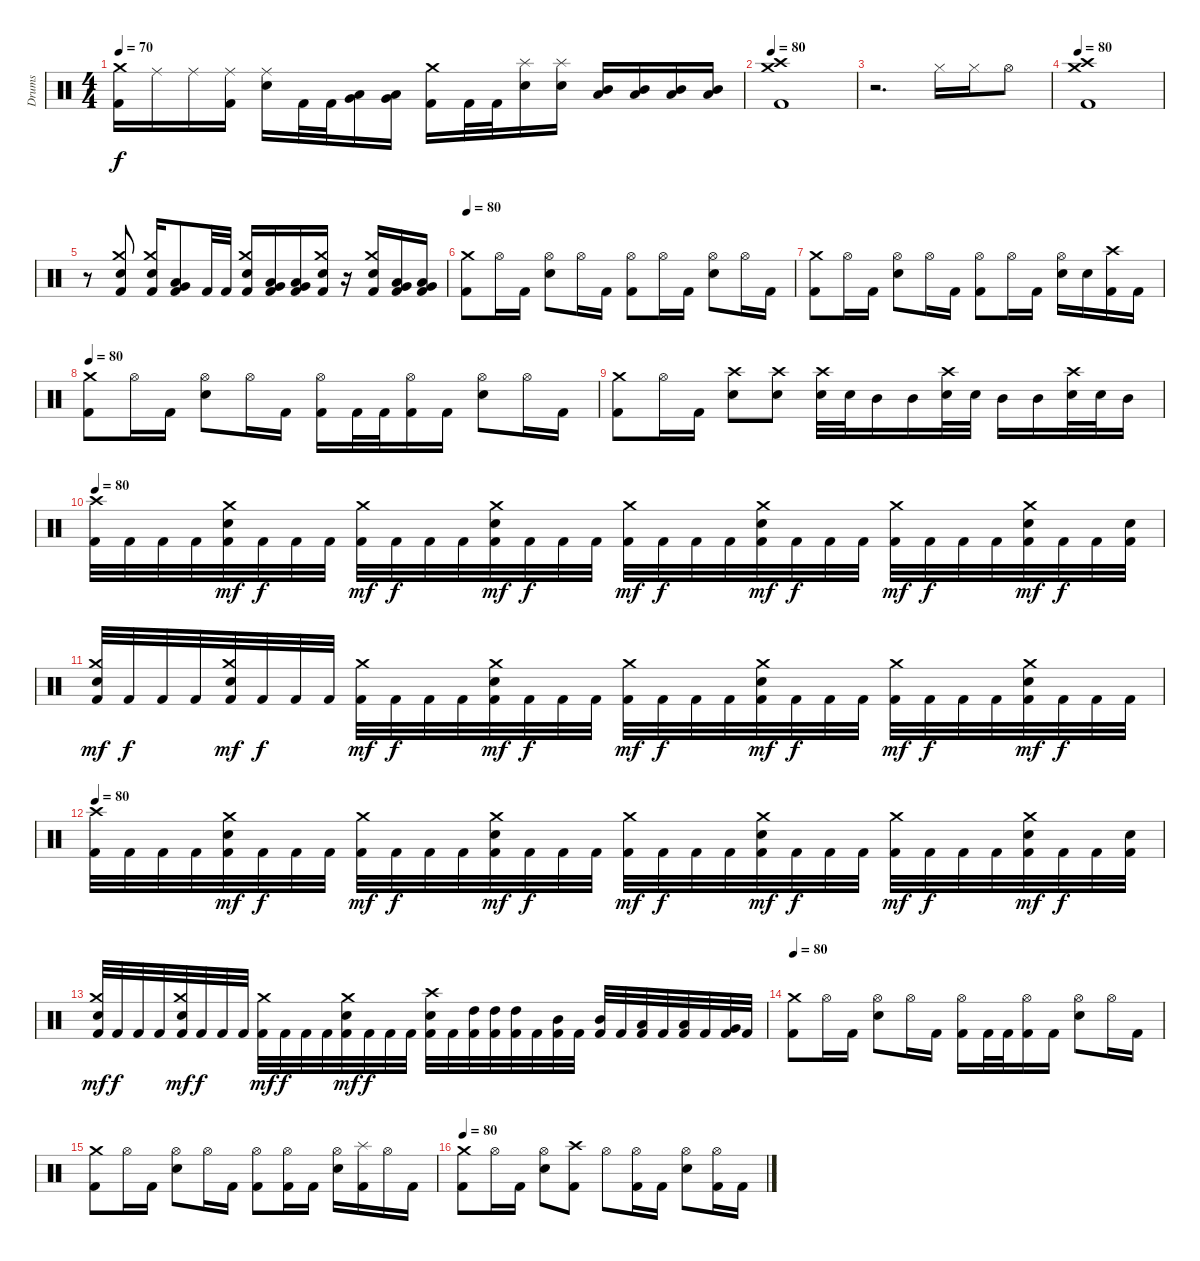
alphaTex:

\track ("Drums" "Drums") {instrument percussion}
\staff {score}
\articulation defaults
\ts (4 4)
\tempo 70
\clef neutral
\ks c
("Kick (hit) 2" "Crash medium (hit)").16{dy f} "Ride (middle)".16 "Ride (middle)".16 ("Kick (hit) 2" "Ride (middle)").16 ("Electric Snare (hit)" "Ride (middle)").16 "Kick (hit) 2".32 "Kick (hit) 2".32 ("Low Tom (hit)" "Very Low Tom (hit)").16 ("Low Tom (hit)" "Very Low Tom (hit)").16 ("Kick (hit) 2" "Crash medium (hit)").16 "Kick (hit) 2".32 "Kick (hit) 2".32 ("Electric Snare (hit)" "Splash (hit)").16 ("Electric Snare (hit)" "Splash (hit)").16 ("Mid Tom (hit)" "Low Tom (hit)").16 ("Mid Tom (hit)" "Low Tom (hit)").16 ("Mid Tom (hit)" "Low Tom (hit)").16 ("Mid Tom (hit)" "Low Tom (hit)").16 |
\tempo 80
("Kick (hit) 2" "Crash high (hit)" "Crash medium (hit)").1 |
r.2{d} "Hi-Hat (closed)".16 "Hi-Hat (closed)".16 "Hi-Hat (open)".8 |
\tempo 80
("Kick (hit) 2" "Crash high (hit)" "Crash medium (hit)").1 |
r.8 ("Kick (hit) 2" "Electric Snare (hit)" "Crash medium (hit)").8 ("Kick (hit) 2" "Electric Snare (hit)" "Crash medium (hit)").16 ("Kick (hit) 2" "Low Tom (hit)" "Very Low Tom (hit)").8 "Kick (hit) 2".32 "Kick (hit) 2".32 ("Kick (hit) 2" "Electric Snare (hit)" "Crash medium (hit)").16 ("Kick (hit) 2" "Low Tom (hit)" "Very Low Tom (hit)").16 ("Kick (hit) 2" "Low Tom (hit)" "Very Low Tom (hit)").16 ("Kick (hit) 2" "Electric Snare (hit)" "Crash medium (hit)").16 r.16 ("Kick (hit) 2" "Electric Snare (hit)" "Crash medium (hit)").16 ("Kick (hit) 2" "Low Tom (hit)" "Very Low Tom (hit)").16 ("Kick (hit) 2" "Low Tom (hit)" "Very Low Tom (hit)").16 |
\tempo 80
("Kick (hit) 2" "Crash medium (hit)").8 "Hi-Hat (open)".16 "Kick (hit) 2".16 ("Electric Snare (hit)" "Hi-Hat (open)").8 "Hi-Hat (open)".16 "Kick (hit) 2".16 ("Kick (hit) 2" "Hi-Hat (open)").8 "Hi-Hat (open)".16 "Kick (hit) 2".16 ("Electric Snare (hit)" "Hi-Hat (open)").8 "Hi-Hat (open)".16 "Kick (hit) 2".16 |
("Kick (hit) 2" "Crash medium (hit)").8 "Hi-Hat (open)".16 "Kick (hit) 2".16 ("Electric Snare (hit)" "Hi-Hat (open)").8 "Hi-Hat (open)".16 "Kick (hit) 2".16 ("Kick (hit) 2" "Hi-Hat (open)").8 "Hi-Hat (open)".16 "Kick (hit) 2".16 ("Electric Snare (hit)" "Hi-Hat (open)").16 "Electric Snare (hit)".16 ("Kick (hit) 2" "Crash high (hit)").16 "Kick (hit) 2".16 |
\tempo 80
("Kick (hit) 2" "Crash medium (hit)").8 "Hi-Hat (open)".16 "Kick (hit) 2".16 ("Electric Snare (hit)" "Hi-Hat (open)").8 "Hi-Hat (open)".16 "Kick (hit) 2".16 ("Kick (hit) 2" "Hi-Hat (open)").16 "Kick (hit) 2".32 "Kick (hit) 2".32 ("Kick (hit) 2" "Hi-Hat (open)").16 "Kick (hit) 2".16 ("Electric Snare (hit)" "Hi-Hat (open)").8 "Hi-Hat (open)".16 "Kick (hit) 2".16 |
("Kick (hit) 2" "Crash medium (hit)").8 "Hi-Hat (open)".16 "Kick (hit) 2".16 ("Electric Snare (hit)" "Crash high (hit)").8 ("Electric Snare (hit)" "Crash high (hit)").8 ("Electric Snare (hit)" "Crash high (hit)").32 "Electric Snare (hit)".32 "Mid Tom (hit)".16 "Mid Tom (hit)".16 ("Electric Snare (hit)" "Crash high (hit)").32 "Electric Snare (hit)".32 "Mid Tom (hit)".16 "Mid Tom (hit)".16 ("Electric Snare (hit)" "Crash high (hit)").32 "Electric Snare (hit)".32 "Mid Tom (hit)".16 |
\tempo 80
("Kick (hit) 2" "Crash high (hit)").32 "Kick (hit) 2".32 "Kick (hit) 2".32 "Kick (hit) 2".32 ("Kick (hit) 2" "Electric Snare (hit)" "Crash medium (hit)").32{dy mf} "Kick (hit) 2".32{dy f} "Kick (hit) 2".32 "Kick (hit) 2".32 ("Kick (hit) 2" "Crash medium (hit)").32{dy mf} "Kick (hit) 2".32{dy f} "Kick (hit) 2".32 "Kick (hit) 2".32 ("Kick (hit) 2" "Electric Snare (hit)" "Crash medium (hit)").32{dy mf} "Kick (hit) 2".32{dy f} "Kick (hit) 2".32 "Kick (hit) 2".32 ("Kick (hit) 2" "Crash medium (hit)").32{dy mf} "Kick (hit) 2".32{dy f} "Kick (hit) 2".32 "Kick (hit) 2".32 ("Kick (hit) 2" "Electric Snare (hit)" "Crash medium (hit)").32{dy mf} "Kick (hit) 2".32{dy f} "Kick (hit) 2".32 "Kick (hit) 2".32 ("Kick (hit) 2" "Crash medium (hit)").32{dy mf} "Kick (hit) 2".32{dy f} "Kick (hit) 2".32 "Kick (hit) 2".32 ("Kick (hit) 2" "Electric Snare (hit)" "Crash medium (hit)").32{dy mf} "Kick (hit) 2".32{dy f} "Kick (hit) 2".32 ("Kick (hit) 2" "Electric Snare (hit)").32 |
("Kick (hit) 2" "Electric Snare (hit)" "Crash medium (hit)").32{dy mf} "Kick (hit) 2".32{dy f} "Kick (hit) 2".32 "Kick (hit) 2".32 ("Kick (hit) 2" "Electric Snare (hit)" "Crash medium (hit)").32{dy mf} "Kick (hit) 2".32{dy f} "Kick (hit) 2".32 "Kick (hit) 2".32 ("Kick (hit) 2" "Crash medium (hit)").32{dy mf} "Kick (hit) 2".32{dy f} "Kick (hit) 2".32 "Kick (hit) 2".32 ("Kick (hit) 2" "Electric Snare (hit)" "Crash medium (hit)").32{dy mf} "Kick (hit) 2".32{dy f} "Kick (hit) 2".32 "Kick (hit) 2".32 ("Kick (hit) 2" "Crash medium (hit)").32{dy mf} "Kick (hit) 2".32{dy f} "Kick (hit) 2".32 "Kick (hit) 2".32 ("Kick (hit) 2" "Electric Snare (hit)" "Crash medium (hit)").32{dy mf} "Kick (hit) 2".32{dy f} "Kick (hit) 2".32 "Kick (hit) 2".32 ("Kick (hit) 2" "Crash medium (hit)").32{dy mf} "Kick (hit) 2".32{dy f} "Kick (hit) 2".32 "Kick (hit) 2".32 ("Kick (hit) 2" "Electric Snare (hit)" "Crash medium (hit)").32{dy mf} "Kick (hit) 2".32{dy f} "Kick (hit) 2".32 "Kick (hit) 2".32 |
\tempo 80
("Kick (hit) 2" "Crash high (hit)").32 "Kick (hit) 2".32 "Kick (hit) 2".32 "Kick (hit) 2".32 ("Kick (hit) 2" "Electric Snare (hit)" "Crash medium (hit)").32{dy mf} "Kick (hit) 2".32{dy f} "Kick (hit) 2".32 "Kick (hit) 2".32 ("Kick (hit) 2" "Crash medium (hit)").32{dy mf} "Kick (hit) 2".32{dy f} "Kick (hit) 2".32 "Kick (hit) 2".32 ("Kick (hit) 2" "Electric Snare (hit)" "Crash medium (hit)").32{dy mf} "Kick (hit) 2".32{dy f} "Kick (hit) 2".32 "Kick (hit) 2".32 ("Kick (hit) 2" "Crash medium (hit)").32{dy mf} "Kick (hit) 2".32{dy f} "Kick (hit) 2".32 "Kick (hit) 2".32 ("Kick (hit) 2" "Electric Snare (hit)" "Crash medium (hit)").32{dy mf} "Kick (hit) 2".32{dy f} "Kick (hit) 2".32 "Kick (hit) 2".32 ("Kick (hit) 2" "Crash medium (hit)").32{dy mf} "Kick (hit) 2".32{dy f} "Kick (hit) 2".32 "Kick (hit) 2".32 ("Kick (hit) 2" "Electric Snare (hit)" "Crash medium (hit)").32{dy mf} "Kick (hit) 2".32{dy f} "Kick (hit) 2".32 ("Kick (hit) 2" "Electric Snare (hit)").32 |
("Kick (hit) 2" "Electric Snare (hit)" "Crash medium (hit)").32{dy mf} "Kick (hit) 2".32{dy f} "Kick (hit) 2".32 "Kick (hit) 2".32 ("Kick (hit) 2" "Electric Snare (hit)" "Crash medium (hit)").32{dy mf} "Kick (hit) 2".32{dy f} "Kick (hit) 2".32 "Kick (hit) 2".32 ("Kick (hit) 2" "Crash medium (hit)").32{dy mf} "Kick (hit) 2".32{dy f} "Kick (hit) 2".32 "Kick (hit) 2".32 ("Kick (hit) 2" "Electric Snare (hit)" "Crash medium (hit)").32{dy mf} "Kick (hit) 2".32{dy f} "Kick (hit) 2".32 "Kick (hit) 2".32 ("Kick (hit) 2" "Electric Snare (hit)" "Crash high (hit)").32 "Kick (hit) 2".32 ("Kick (hit) 2" "High Tom (hit)").32 ("Kick (hit) 2" "High Tom (hit)").32 ("Kick (hit) 2" "High Tom (hit)").32 "Kick (hit) 2".32 ("Kick (hit) 2" "Mid Tom (hit)").32 "Kick (hit) 2".32 ("Kick (hit) 2" "Mid Tom (hit)").32 "Kick (hit) 2".32 ("Kick (hit) 2" "Low Tom (hit)").32 "Kick (hit) 2".32 ("Kick (hit) 2" "Low Tom (hit)").32 "Kick (hit) 2".32 ("Kick (hit) 2" "Very Low Tom (hit)").32 "Kick (hit) 2".32 |
\tempo 80
("Kick (hit) 2" "Crash medium (hit)").8 "Hi-Hat (open)".16 "Kick (hit) 2".16 ("Electric Snare (hit)" "Hi-Hat (open)").8 "Hi-Hat (open)".16 "Kick (hit) 2".16 ("Kick (hit) 2" "Hi-Hat (open)").16 "Kick (hit) 2".32 "Kick (hit) 2".32 ("Kick (hit) 2" "Hi-Hat (open)").16 "Kick (hit) 2".16 ("Electric Snare (hit)" "Hi-Hat (open)").8 "Hi-Hat (open)".16 "Kick (hit) 2".16 |
("Kick (hit) 2" "Crash medium (hit)").8 "Hi-Hat (open)".16 "Kick (hit) 2".16 ("Electric Snare (hit)" "Hi-Hat (open)").8 "Hi-Hat (open)".16 "Kick (hit) 2".16 ("Kick (hit) 2" "Hi-Hat (open)").8 ("Kick (hit) 2" "Hi-Hat (open)").16 "Kick (hit) 2".16 ("Electric Snare (hit)" "Hi-Hat (open)").16 ("Kick (hit) 2" "Splash (hit)").16 "Hi-Hat (open)".16 "Kick (hit) 2".16 |
\tempo 80
("Kick (hit) 2" "Crash medium (hit)").8 "Hi-Hat (open)".16 "Kick (hit) 2".16 ("Electric Snare (hit)" "Hi-Hat (open)").8 ("Kick (hit) 2" "Crash high (hit)").8 "Hi-Hat (open)".8 ("Kick (hit) 2" "Hi-Hat (open)").16 "Kick (hit) 2".16 ("Electric Snare (hit)" "Hi-Hat (open)").8 ("Kick (hit) 2" "Hi-Hat (open)").16 "Kick (hit) 2".16
